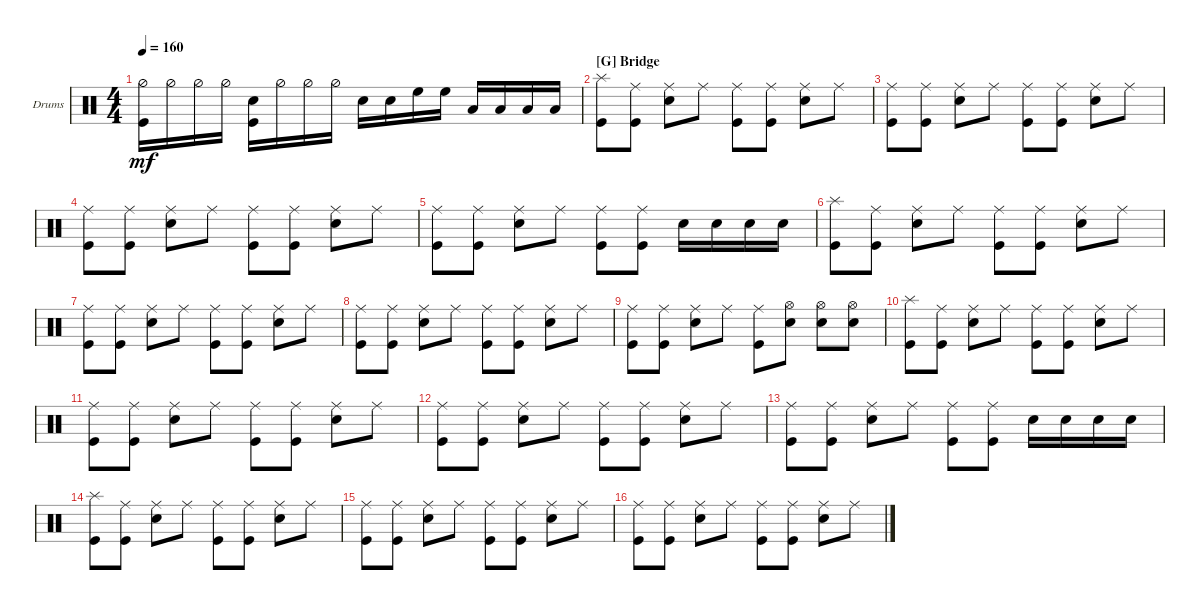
\bracketExtendMode groupsimilarinstruments
\firstSystemTrackNameOrientation horizontal
\otherSystemsTrackNameOrientation horizontal
\track ("Drumkit" "Drums") {instrument percussion}
\staff {score}
\articulation defaults
\ts (4 4)
\tempo 160
\clef neutral
\ks c
("Kick (hit)" "Hi-Hat (half)").16{dy mf} "Hi-Hat (half)".16 "Hi-Hat (half)".16 "Hi-Hat (half)".16 ("Snare (hit) 2" "Kick (hit)").16 "Hi-Hat (half)".16 "Hi-Hat (half)".16 "Hi-Hat (half)".16 "Snare (hit) 2".16 "Snare (hit) 2".16 "High Floor Tom (hit)".16 "High Floor Tom (hit)".16 "Low Tom (hit)".16 "Low Tom (hit)".16 "Low Tom (hit)".16 "Low Tom (hit)".16 |
\section ("G" "Bridge")
("Splash (hit)" "Kick (hit)").8 ("Ride (middle)" "Kick (hit)").8 ("Ride (middle)" "Snare (hit) 2").8 "Ride (middle)".8 ("Ride (middle)" "Kick (hit)").8 ("Ride (middle)" "Kick (hit)").8 ("Ride (middle)" "Snare (hit) 2").8 "Ride (middle)".8 |
("Ride (middle)" "Kick (hit)").8 ("Ride (middle)" "Kick (hit)").8 ("Ride (middle)" "Snare (hit) 2").8 "Ride (middle)".8 ("Ride (middle)" "Kick (hit)").8 ("Ride (middle)" "Kick (hit)").8 ("Ride (middle)" "Snare (hit) 2").8 "Ride (middle)".8 |
("Kick (hit)" "Ride (middle)").8 ("Ride (middle)" "Kick (hit)").8 ("Ride (middle)" "Snare (hit) 2").8 "Ride (middle)".8 ("Ride (middle)" "Kick (hit)").8 ("Ride (middle)" "Kick (hit)").8 ("Ride (middle)" "Snare (hit) 2").8 "Ride (middle)".8 |
("Ride (middle)" "Kick (hit)").8 ("Ride (middle)" "Kick (hit)").8 ("Ride (middle)" "Snare (hit) 2").8 "Ride (middle)".8 ("Ride (middle)" "Kick (hit)").8 ("Ride (middle)" "Kick (hit)").8 "Snare (hit) 2".16 "Snare (hit) 2".16 "Snare (hit) 2".16 "Snare (hit) 2".16 |
("Splash (hit)" "Kick (hit)").8 ("Ride (middle)" "Kick (hit)").8 ("Ride (middle)" "Snare (hit) 2").8 "Ride (middle)".8 ("Ride (middle)" "Kick (hit)").8 ("Ride (middle)" "Kick (hit)").8 ("Ride (middle)" "Snare (hit) 2").8 "Ride (middle)".8 |
("Ride (middle)" "Kick (hit)").8 ("Ride (middle)" "Kick (hit)").8 ("Ride (middle)" "Snare (hit) 2").8 "Ride (middle)".8 ("Ride (middle)" "Kick (hit)").8 ("Ride (middle)" "Kick (hit)").8 ("Ride (middle)" "Snare (hit) 2").8 "Ride (middle)".8 |
("Kick (hit)" "Ride (middle)").8 ("Ride (middle)" "Kick (hit)").8 ("Ride (middle)" "Snare (hit) 2").8 "Ride (middle)".8 ("Ride (middle)" "Kick (hit)").8 ("Ride (middle)" "Kick (hit)").8 ("Ride (middle)" "Snare (hit) 2").8 "Ride (middle)".8 |
("Ride (middle)" "Kick (hit)").8 ("Ride (middle)" "Kick (hit)").8 ("Ride (middle)" "Snare (hit) 2").8 "Ride (middle)".8 ("Ride (middle)" "Kick (hit)").8 ("Snare (hit) 2" "Hi-Hat (open)").8 ("Snare (hit) 2" "Hi-Hat (open)").8 ("Snare (hit) 2" "Hi-Hat (open)").8 |
("Splash (hit)" "Kick (hit)").8 ("Ride (middle)" "Kick (hit)").8 ("Ride (middle)" "Snare (hit) 2").8 "Ride (middle)".8 ("Ride (middle)" "Kick (hit)").8 ("Ride (middle)" "Kick (hit)").8 ("Ride (middle)" "Snare (hit) 2").8 "Ride (middle)".8 |
("Ride (middle)" "Kick (hit)").8 ("Ride (middle)" "Kick (hit)").8 ("Ride (middle)" "Snare (hit) 2").8 "Ride (middle)".8 ("Ride (middle)" "Kick (hit)").8 ("Ride (middle)" "Kick (hit)").8 ("Ride (middle)" "Snare (hit) 2").8 "Ride (middle)".8 |
("Kick (hit)" "Ride (middle)").8 ("Ride (middle)" "Kick (hit)").8 ("Ride (middle)" "Snare (hit) 2").8 "Ride (middle)".8 ("Ride (middle)" "Kick (hit)").8 ("Ride (middle)" "Kick (hit)").8 ("Ride (middle)" "Snare (hit) 2").8 "Ride (middle)".8 |
("Ride (middle)" "Kick (hit)").8 ("Ride (middle)" "Kick (hit)").8 ("Ride (middle)" "Snare (hit) 2").8 "Ride (middle)".8 ("Ride (middle)" "Kick (hit)").8 ("Ride (middle)" "Kick (hit)").8 "Snare (hit) 2".16 "Snare (hit) 2".16 "Snare (hit) 2".16 "Snare (hit) 2".16 |
("Splash (hit)" "Kick (hit)").8 ("Ride (middle)" "Kick (hit)").8 ("Ride (middle)" "Snare (hit) 2").8 "Ride (middle)".8 ("Ride (middle)" "Kick (hit)").8 ("Ride (middle)" "Kick (hit)").8 ("Ride (middle)" "Snare (hit) 2").8 "Ride (middle)".8 |
("Ride (middle)" "Kick (hit)").8 ("Ride (middle)" "Kick (hit)").8 ("Ride (middle)" "Snare (hit) 2").8 "Ride (middle)".8 ("Ride (middle)" "Kick (hit)").8 ("Ride (middle)" "Kick (hit)").8 ("Ride (middle)" "Snare (hit) 2").8 "Ride (middle)".8 |
("Kick (hit)" "Ride (middle)").8 ("Ride (middle)" "Kick (hit)").8 ("Ride (middle)" "Snare (hit) 2").8 "Ride (middle)".8 ("Ride (middle)" "Kick (hit)").8 ("Ride (middle)" "Kick (hit)").8 ("Ride (middle)" "Snare (hit) 2").8 "Ride (middle)".8
